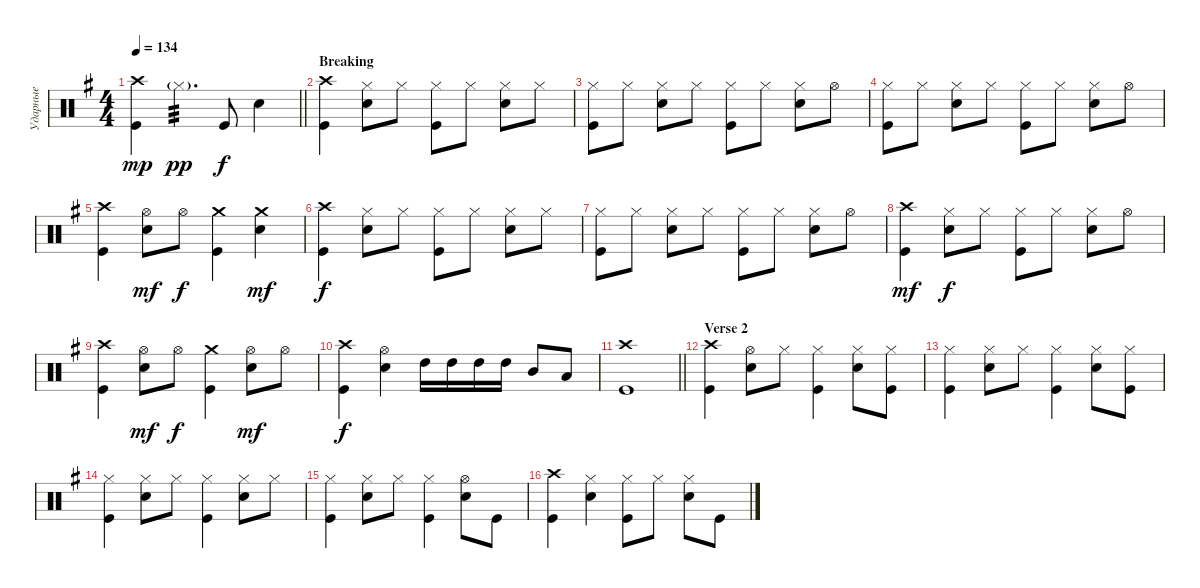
\track ("Ударные" "Ударные") {instrument percussion}
\staff {score}
\articulation defaults
\ts (4 4)
\tempo 134
\clef neutral
\barLineRight lightlight
\ks eminor
("Crash high (hit)" "Kick (hit)").4{dy mp} "Hi-Hat (closed)"{g}.4{d tp 3 dy pp} "Kick (hit)".8{dy f} "Snare (hit) 2".4 |
\section ("" "Breaking")
("Crash high (hit)" "Kick (hit)").4 ("Hi-Hat (closed)" "Snare (hit) 2").8 "Hi-Hat (closed)".8 ("Hi-Hat (closed)" "Kick (hit)").8 "Hi-Hat (closed)".8 ("Hi-Hat (closed)" "Snare (hit) 2").8 "Hi-Hat (closed)".8 |
("Hi-Hat (closed)" "Kick (hit)").8 "Hi-Hat (closed)".8 ("Hi-Hat (closed)" "Snare (hit) 2").8 "Hi-Hat (closed)".8 ("Hi-Hat (closed)" "Kick (hit)").8 "Hi-Hat (closed)".8 ("Hi-Hat (closed)" "Snare (hit) 2").8 "Hi-Hat (open)".8 |
("Hi-Hat (closed)" "Kick (hit)").8 "Hi-Hat (closed)".8 ("Hi-Hat (closed)" "Snare (hit) 2").8 "Hi-Hat (closed)".8 ("Hi-Hat (closed)" "Kick (hit)").8 "Hi-Hat (closed)".8 ("Hi-Hat (closed)" "Snare (hit) 2").8 "Hi-Hat (open)".8 |
("Crash high (hit)" "Kick (hit)").4 ("Hi-Hat (open)" "Snare (hit) 2").8{dy mf} "Hi-Hat (open)".8{dy f} ("Crash medium (hit)" "Kick (hit)").4 ("Crash medium (hit)" "Snare (hit) 2").4{dy mf} |
("Crash high (hit)" "Kick (hit)").4{dy f} ("Hi-Hat (closed)" "Snare (hit) 2").8 "Hi-Hat (closed)".8 ("Hi-Hat (closed)" "Kick (hit)").8 "Hi-Hat (closed)".8 ("Hi-Hat (closed)" "Snare (hit) 2").8 "Hi-Hat (closed)".8 |
("Hi-Hat (closed)" "Kick (hit)").8 "Hi-Hat (closed)".8 ("Hi-Hat (closed)" "Snare (hit) 2").8 "Hi-Hat (closed)".8 ("Hi-Hat (closed)" "Kick (hit)").8 "Hi-Hat (closed)".8 ("Hi-Hat (closed)" "Snare (hit) 2").8 "Hi-Hat (open)".8 |
("Crash high (hit)" "Kick (hit)").4{dy mf} ("Hi-Hat (closed)" "Snare (hit) 2").8{dy f} "Hi-Hat (closed)".8 ("Hi-Hat (closed)" "Kick (hit)").8 "Hi-Hat (closed)".8 ("Hi-Hat (closed)" "Snare (hit) 2").8 "Hi-Hat (open)".8 |
("Crash high (hit)" "Kick (hit)").4 ("Hi-Hat (open)" "Snare (hit) 2").8{dy mf} "Hi-Hat (open)".8{dy f} ("Crash medium (hit)" "Kick (hit)").4 ("Snare (hit) 2" "Hi-Hat (open)").8{dy mf} "Hi-Hat (open)".8 |
("Kick (hit)" "Crash high (hit)").4{dy f} ("Hi-Hat (open)" "Snare (hit) 2").4 "High Tom (hit)".16 "High Tom (hit)".16 "High Tom (hit)".16 "High Tom (hit)".16 "Mid Tom (hit)".8 "Low Tom (hit)".8 |
\barLineRight lightlight
("Kick (hit)" "Crash high (hit)").1 |
\section ("" "Verse 2")
("Crash high (hit)" "Kick (hit)").4 ("Hi-Hat (open)" "Snare (hit) 2").8 "Hi-Hat (closed)".8 ("Hi-Hat (closed)" "Kick (hit)").4 ("Hi-Hat (closed)" "Snare (hit) 2").8 ("Hi-Hat (closed)" "Kick (hit)").8 |
("Hi-Hat (closed)" "Kick (hit)").4 ("Hi-Hat (closed)" "Snare (hit) 2").8 "Hi-Hat (closed)".8 ("Hi-Hat (closed)" "Kick (hit)").4 ("Hi-Hat (closed)" "Snare (hit) 2").8 ("Hi-Hat (closed)" "Kick (hit)").8 |
("Hi-Hat (closed)" "Kick (hit)").4 ("Hi-Hat (closed)" "Snare (hit) 2").8 "Hi-Hat (closed)".8 ("Hi-Hat (closed)" "Kick (hit)").4 ("Hi-Hat (closed)" "Snare (hit) 2").8 "Hi-Hat (closed)".8 |
("Hi-Hat (closed)" "Kick (hit)").4 ("Hi-Hat (closed)" "Snare (hit) 2").8 "Hi-Hat (closed)".8 ("Hi-Hat (closed)" "Kick (hit)").4 ("Hi-Hat (open)" "Snare (hit) 2").8 "Kick (hit)".8 |
("Crash high (hit)" "Kick (hit)").4 ("Hi-Hat (closed)" "Snare (hit) 2").4 ("Hi-Hat (closed)" "Kick (hit)").8 "Hi-Hat (closed)".8 ("Hi-Hat (closed)" "Snare (hit) 2").8 "Kick (hit)".8
